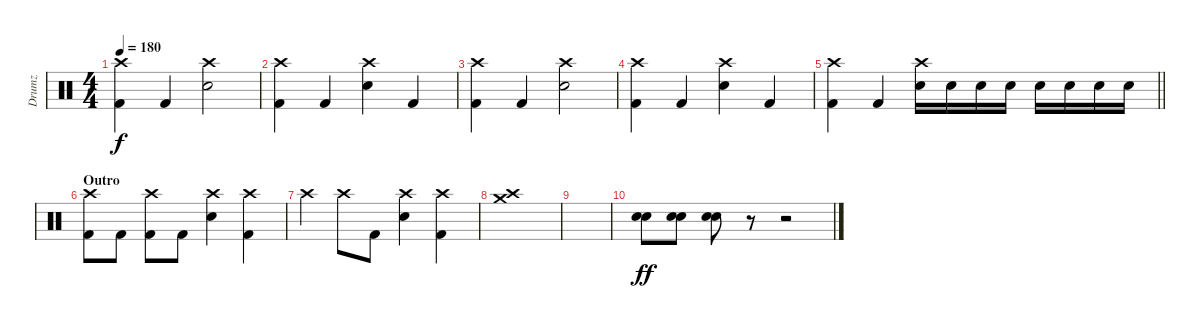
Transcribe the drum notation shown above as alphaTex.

\track ("Drumz" "Drumz") {instrument percussion}
\staff {score}
\articulation defaults
\ts (4 4)
\tempo 180
\clef neutral
\ks c
("Crash high (hit)" "Kick (hit) 2").4{dy f} "Kick (hit) 2".4 ("Crash high (hit)" "Snare (hit) 2").2 |
("Kick (hit) 2" "Crash high (hit)").4 "Kick (hit) 2".4 ("Snare (hit) 2" "Crash high (hit)").4 "Kick (hit) 2".4 |
("Crash high (hit)" "Kick (hit) 2").4 "Kick (hit) 2".4 ("Crash high (hit)" "Snare (hit) 2").2 |
("Kick (hit) 2" "Crash high (hit)").4 "Kick (hit) 2".4 ("Snare (hit) 2" "Crash high (hit)").4 "Kick (hit) 2".4 |
\barLineRight lightlight
("Crash high (hit)" "Kick (hit) 2").4 "Kick (hit) 2".4 ("Crash high (hit)" "Electric Snare (hit)").16 "Electric Snare (hit)".16 "Electric Snare (hit)".16 "Electric Snare (hit)".16 "Electric Snare (hit)".16 "Electric Snare (hit)".16 "Electric Snare (hit)".16 "Electric Snare (hit)".16 |
\section ("" "Outro")
("Kick (hit) 2" "Crash high (hit)").8 "Kick (hit) 2".8 ("Kick (hit) 2" "Crash high (hit)").8 "Kick (hit) 2".8 ("Crash high (hit)" "Snare (hit) 2").4 ("Kick (hit) 2" "Crash high (hit)").4 |
"Crash high (hit)".4 "Crash high (hit)".8 "Kick (hit) 2".8 ("Crash high (hit)" "Snare (hit) 2").4 ("Kick (hit) 2" "Crash high (hit)").4 |
("Crash high (hit)" "Crash medium (hit)").1 |
|
("Electric Snare (hit)" "Electric Snare (hit)").8{dy ff} ("Electric Snare (hit)" "Electric Snare (hit)").8 ("Electric Snare (hit)" "Electric Snare (hit)").8 r.8 r.2
